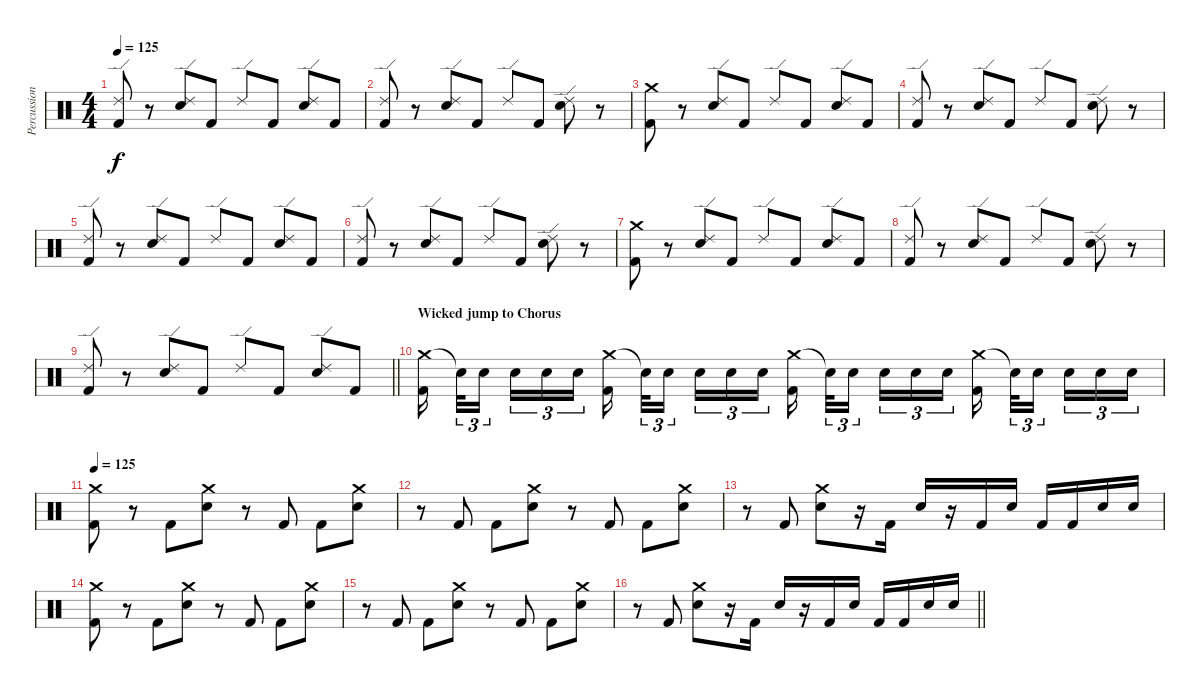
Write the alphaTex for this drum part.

\track ("Percussion" "Percussion") {instrument percussion}
\staff {score}
\articulation defaults
\ts (4 4)
\tempo 125
\clef neutral
\ks c
("Ride (edge) 2" "Kick (hit) 2").8{dy f} r.8 ("Ride (edge) 2" "Electric Snare (hit)").8 "Kick (hit) 2".8 "Ride (edge) 2".8 "Kick (hit) 2".8 ("Ride (edge) 2" "Electric Snare (hit)").8 "Kick (hit) 2".8 |
("Ride (edge) 2" "Kick (hit) 2").8 r.8 ("Ride (edge) 2" "Electric Snare (hit)").8 "Kick (hit) 2".8 "Ride (edge) 2".8 "Kick (hit) 2".8 ("Ride (edge) 2" "Electric Snare (hit)").8 r.8 |
("Crash medium (hit)" "Kick (hit) 2").8 r.8 ("Ride (edge) 2" "Electric Snare (hit)").8 "Kick (hit) 2".8 "Ride (edge) 2".8 "Kick (hit) 2".8 ("Ride (edge) 2" "Electric Snare (hit)").8 "Kick (hit) 2".8 |
("Ride (edge) 2" "Kick (hit) 2").8 r.8 ("Ride (edge) 2" "Electric Snare (hit)").8 "Kick (hit) 2".8 "Ride (edge) 2".8 "Kick (hit) 2".8 ("Ride (edge) 2" "Electric Snare (hit)").8 r.8 |
("Ride (edge) 2" "Kick (hit) 2").8 r.8 ("Ride (edge) 2" "Electric Snare (hit)").8 "Kick (hit) 2".8 "Ride (edge) 2".8 "Kick (hit) 2".8 ("Ride (edge) 2" "Electric Snare (hit)").8 "Kick (hit) 2".8 |
("Ride (edge) 2" "Kick (hit) 2").8 r.8 ("Ride (edge) 2" "Electric Snare (hit)").8 "Kick (hit) 2".8 "Ride (edge) 2".8 "Kick (hit) 2".8 ("Ride (edge) 2" "Electric Snare (hit)").8 r.8 |
("Crash medium (hit)" "Kick (hit) 2").8 r.8 ("Ride (edge) 2" "Electric Snare (hit)").8 "Kick (hit) 2".8 "Ride (edge) 2".8 "Kick (hit) 2".8 ("Ride (edge) 2" "Electric Snare (hit)").8 "Kick (hit) 2".8 |
("Ride (edge) 2" "Kick (hit) 2").8 r.8 ("Ride (edge) 2" "Electric Snare (hit)").8 "Kick (hit) 2".8 "Ride (edge) 2".8 "Kick (hit) 2".8 ("Ride (edge) 2" "Electric Snare (hit)").8 r.8 |
\barLineRight lightlight
("Ride (edge) 2" "Kick (hit) 2").8 r.8 ("Ride (edge) 2" "Electric Snare (hit)").8 "Kick (hit) 2".8 "Ride (edge) 2".8 "Kick (hit) 2".8 ("Ride (edge) 2" "Electric Snare (hit)").8 "Kick (hit) 2".8 |
\section ("" "Wicked jump to Chorus")
("Crash medium (hit)" "Kick (hit) 2").16{beam splitsecondary} "Snare (hit)"{t}.32{tu (3 2)} "Electric Snare (hit)".16{tu (3 2) beam splitsecondary} "Electric Snare (hit)".16{tu (3 2)} "Electric Snare (hit)".16{tu (3 2)} "Electric Snare (hit)".16{tu (3 2)} ("Crash medium (hit)" "Kick (hit) 2").16{beam splitsecondary} "Snare (hit)"{t}.32{tu (3 2)} "Electric Snare (hit)".16{tu (3 2) beam splitsecondary} "Electric Snare (hit)".16{tu (3 2)} "Electric Snare (hit)".16{tu (3 2)} "Electric Snare (hit)".16{tu (3 2)} ("Crash medium (hit)" "Kick (hit) 2").16{beam splitsecondary} "Snare (hit)"{t}.32{tu (3 2)} "Electric Snare (hit)".16{tu (3 2) beam splitsecondary} "Electric Snare (hit)".16{tu (3 2)} "Electric Snare (hit)".16{tu (3 2)} "Electric Snare (hit)".16{tu (3 2)} ("Crash medium (hit)" "Kick (hit) 2").16{beam splitsecondary} "Snare (hit)"{t}.32{tu (3 2)} "Electric Snare (hit)".16{tu (3 2) beam splitsecondary} "Electric Snare (hit)".16{tu (3 2)} "Electric Snare (hit)".16{tu (3 2)} "Electric Snare (hit)".16{tu (3 2)} |
\tempo 125
("Crash medium (hit)" "Kick (hit) 2").8 r.8 "Kick (hit) 2".8 ("Crash medium (hit)" "Electric Snare (hit)").8 r.8 "Kick (hit) 2".8 "Kick (hit) 2".8 ("Crash medium (hit)" "Electric Snare (hit)").8 |
r.8 "Kick (hit) 2".8 "Kick (hit) 2".8 ("Crash medium (hit)" "Electric Snare (hit)").8 r.8 "Kick (hit) 2".8 "Kick (hit) 2".8 ("Crash medium (hit)" "Electric Snare (hit)").8 |
r.8 "Kick (hit) 2".8 ("Crash medium (hit)" "Electric Snare (hit)").8 r.16 "Kick (hit) 2".16 "Electric Snare (hit)".16 r.16 "Kick (hit) 2".16 "Electric Snare (hit)".16 "Kick (hit) 2".16 "Kick (hit) 2".16 "Electric Snare (hit)".16 "Electric Snare (hit)".16 |
("Crash medium (hit)" "Kick (hit) 2").8 r.8 "Kick (hit) 2".8 ("Crash medium (hit)" "Electric Snare (hit)").8 r.8 "Kick (hit) 2".8 "Kick (hit) 2".8 ("Crash medium (hit)" "Electric Snare (hit)").8 |
r.8 "Kick (hit) 2".8 "Kick (hit) 2".8 ("Crash medium (hit)" "Electric Snare (hit)").8 r.8 "Kick (hit) 2".8 "Kick (hit) 2".8 ("Crash medium (hit)" "Electric Snare (hit)").8 |
\barLineRight lightlight
r.8 "Kick (hit) 2".8 ("Crash medium (hit)" "Electric Snare (hit)").8 r.16 "Kick (hit) 2".16 "Electric Snare (hit)".16 r.16 "Kick (hit) 2".16 "Electric Snare (hit)".16 "Kick (hit) 2".16 "Kick (hit) 2".16 "Electric Snare (hit)".16 "Electric Snare (hit)".16
